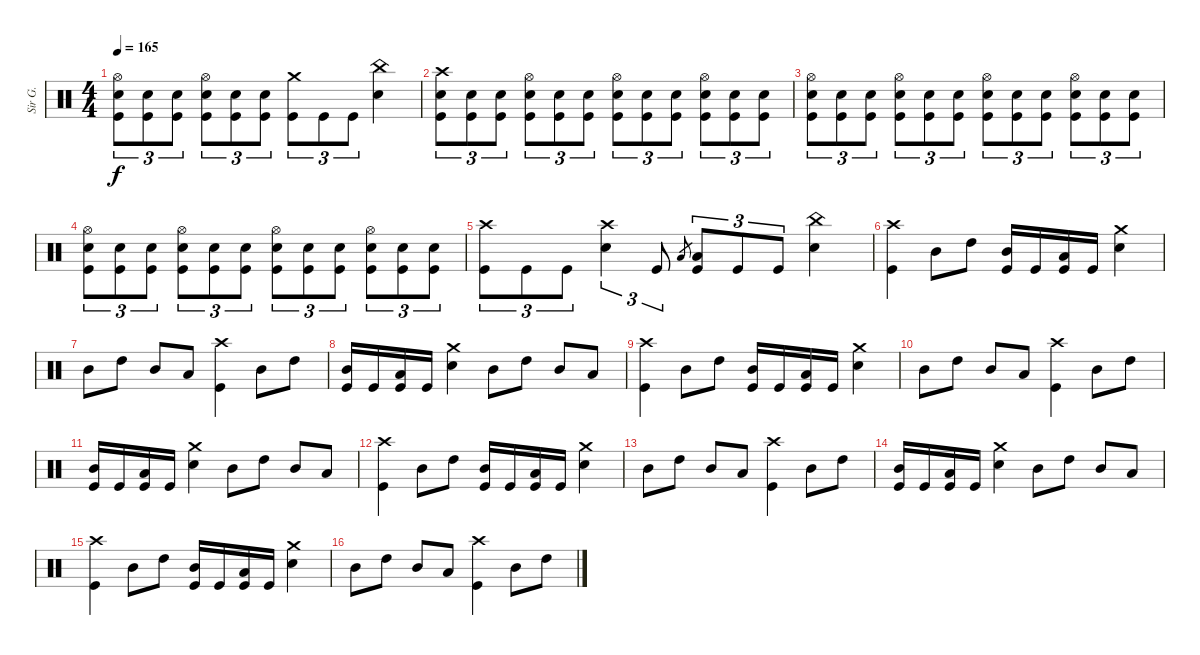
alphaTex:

\track ("Sir G." "Sir G.") {instrument percussion}
\staff {score}
\articulation defaults
\ts (4 4)
\tempo 165
\clef neutral
\ks c
("Hi-Hat (open)" "Electric Snare (hit)" "Kick (hit)").8{tu (3 2) dy f} ("Electric Snare (hit)" "Kick (hit)").8{tu (3 2)} ("Electric Snare (hit)" "Kick (hit)").8{tu (3 2)} ("Hi-Hat (open)" "Electric Snare (hit)" "Kick (hit)").8{tu (3 2)} ("Electric Snare (hit)" "Kick (hit)").8{tu (3 2)} ("Electric Snare (hit)" "Kick (hit)").8{tu (3 2)} ("Crash medium (hit)" "Kick (hit)").8{tu (3 2)} "Kick (hit)".8{tu (3 2)} "Kick (hit)".8{tu (3 2)} ("China (hit)" "Electric Snare (hit)").4 |
("Crash high (hit)" "Electric Snare (hit)" "Kick (hit)").8{tu (3 2)} ("Electric Snare (hit)" "Kick (hit)").8{tu (3 2)} ("Electric Snare (hit)" "Kick (hit)").8{tu (3 2)} ("Hi-Hat (open)" "Electric Snare (hit)" "Kick (hit)").8{tu (3 2)} ("Electric Snare (hit)" "Kick (hit)").8{tu (3 2)} ("Electric Snare (hit)" "Kick (hit)").8{tu (3 2)} ("Hi-Hat (open)" "Electric Snare (hit)" "Kick (hit)").8{tu (3 2)} ("Electric Snare (hit)" "Kick (hit)").8{tu (3 2)} ("Electric Snare (hit)" "Kick (hit)").8{tu (3 2)} ("Hi-Hat (open)" "Electric Snare (hit)" "Kick (hit)").8{tu (3 2)} ("Electric Snare (hit)" "Kick (hit)").8{tu (3 2)} ("Electric Snare (hit)" "Kick (hit)").8{tu (3 2)} |
("Hi-Hat (open)" "Electric Snare (hit)" "Kick (hit)").8{tu (3 2)} ("Electric Snare (hit)" "Kick (hit)").8{tu (3 2)} ("Electric Snare (hit)" "Kick (hit)").8{tu (3 2)} ("Hi-Hat (open)" "Electric Snare (hit)" "Kick (hit)").8{tu (3 2)} ("Electric Snare (hit)" "Kick (hit)").8{tu (3 2)} ("Electric Snare (hit)" "Kick (hit)").8{tu (3 2)} ("Hi-Hat (open)" "Electric Snare (hit)" "Kick (hit)").8{tu (3 2)} ("Electric Snare (hit)" "Kick (hit)").8{tu (3 2)} ("Electric Snare (hit)" "Kick (hit)").8{tu (3 2)} ("Hi-Hat (open)" "Electric Snare (hit)" "Kick (hit)").8{tu (3 2)} ("Electric Snare (hit)" "Kick (hit)").8{tu (3 2)} ("Electric Snare (hit)" "Kick (hit)").8{tu (3 2)} |
("Hi-Hat (open)" "Electric Snare (hit)" "Kick (hit)").8{tu (3 2)} ("Electric Snare (hit)" "Kick (hit)").8{tu (3 2)} ("Electric Snare (hit)" "Kick (hit)").8{tu (3 2)} ("Hi-Hat (open)" "Electric Snare (hit)" "Kick (hit)").8{tu (3 2)} ("Electric Snare (hit)" "Kick (hit)").8{tu (3 2)} ("Electric Snare (hit)" "Kick (hit)").8{tu (3 2)} ("Hi-Hat (open)" "Electric Snare (hit)" "Kick (hit)").8{tu (3 2)} ("Electric Snare (hit)" "Kick (hit)").8{tu (3 2)} ("Electric Snare (hit)" "Kick (hit)").8{tu (3 2)} ("Hi-Hat (open)" "Electric Snare (hit)" "Kick (hit)").8{tu (3 2)} ("Electric Snare (hit)" "Kick (hit)").8{tu (3 2)} ("Electric Snare (hit)" "Kick (hit)").8{tu (3 2)} |
("Crash high (hit)" "Kick (hit)").8{tu (3 2)} "Kick (hit)".8{tu (3 2)} "Kick (hit)".8{tu (3 2)} ("Crash high (hit)" "Electric Snare (hit)").4{tu (3 2)} "Kick (hit)".8{tu (3 2)} "Low Tom (hit)".8{gr} ("Low Tom (hit)" "Kick (hit)").8{tu (3 2)} "Kick (hit)".8{tu (3 2)} "Kick (hit)".8{tu (3 2)} ("China (hit)" "Electric Snare (hit)").4 |
("Crash high (hit)" "Kick (hit)").4 "Mid Tom (hit)".8 "High Tom (hit)".8 ("Mid Tom (hit)" "Kick (hit)").16 "Kick (hit)".16 ("Low Tom (hit)" "Kick (hit)").16 "Kick (hit)".16 ("Crash medium (hit)" "Electric Snare (hit)").4 |
"Mid Tom (hit)".8 "High Tom (hit)".8 "Mid Tom (hit)".8 "Low Tom (hit)".8 ("Crash high (hit)" "Kick (hit)").4 "Mid Tom (hit)".8 "High Tom (hit)".8 |
("Mid Tom (hit)" "Kick (hit)").16 "Kick (hit)".16 ("Low Tom (hit)" "Kick (hit)").16 "Kick (hit)".16 ("Crash medium (hit)" "Electric Snare (hit)").4 "Mid Tom (hit)".8 "High Tom (hit)".8 "Mid Tom (hit)".8 "Low Tom (hit)".8 |
("Crash high (hit)" "Kick (hit)").4 "Mid Tom (hit)".8 "High Tom (hit)".8 ("Mid Tom (hit)" "Kick (hit)").16 "Kick (hit)".16 ("Low Tom (hit)" "Kick (hit)").16 "Kick (hit)".16 ("Crash medium (hit)" "Electric Snare (hit)").4 |
"Mid Tom (hit)".8 "High Tom (hit)".8 "Mid Tom (hit)".8 "Low Tom (hit)".8 ("Crash high (hit)" "Kick (hit)").4 "Mid Tom (hit)".8 "High Tom (hit)".8 |
("Mid Tom (hit)" "Kick (hit)").16 "Kick (hit)".16 ("Low Tom (hit)" "Kick (hit)").16 "Kick (hit)".16 ("Crash medium (hit)" "Electric Snare (hit)").4 "Mid Tom (hit)".8 "High Tom (hit)".8 "Mid Tom (hit)".8 "Low Tom (hit)".8 |
("Crash high (hit)" "Kick (hit)").4 "Mid Tom (hit)".8 "High Tom (hit)".8 ("Mid Tom (hit)" "Kick (hit)").16 "Kick (hit)".16 ("Low Tom (hit)" "Kick (hit)").16 "Kick (hit)".16 ("Crash medium (hit)" "Electric Snare (hit)").4 |
"Mid Tom (hit)".8 "High Tom (hit)".8 "Mid Tom (hit)".8 "Low Tom (hit)".8 ("Crash high (hit)" "Kick (hit)").4 "Mid Tom (hit)".8 "High Tom (hit)".8 |
("Mid Tom (hit)" "Kick (hit)").16 "Kick (hit)".16 ("Low Tom (hit)" "Kick (hit)").16 "Kick (hit)".16 ("Crash medium (hit)" "Electric Snare (hit)").4 "Mid Tom (hit)".8 "High Tom (hit)".8 "Mid Tom (hit)".8 "Low Tom (hit)".8 |
("Crash high (hit)" "Kick (hit)").4 "Mid Tom (hit)".8 "High Tom (hit)".8 ("Mid Tom (hit)" "Kick (hit)").16 "Kick (hit)".16 ("Low Tom (hit)" "Kick (hit)").16 "Kick (hit)".16 ("Crash medium (hit)" "Electric Snare (hit)").4 |
"Mid Tom (hit)".8 "High Tom (hit)".8 "Mid Tom (hit)".8 "Low Tom (hit)".8 ("Crash high (hit)" "Kick (hit)").4 "Mid Tom (hit)".8 "High Tom (hit)".8
